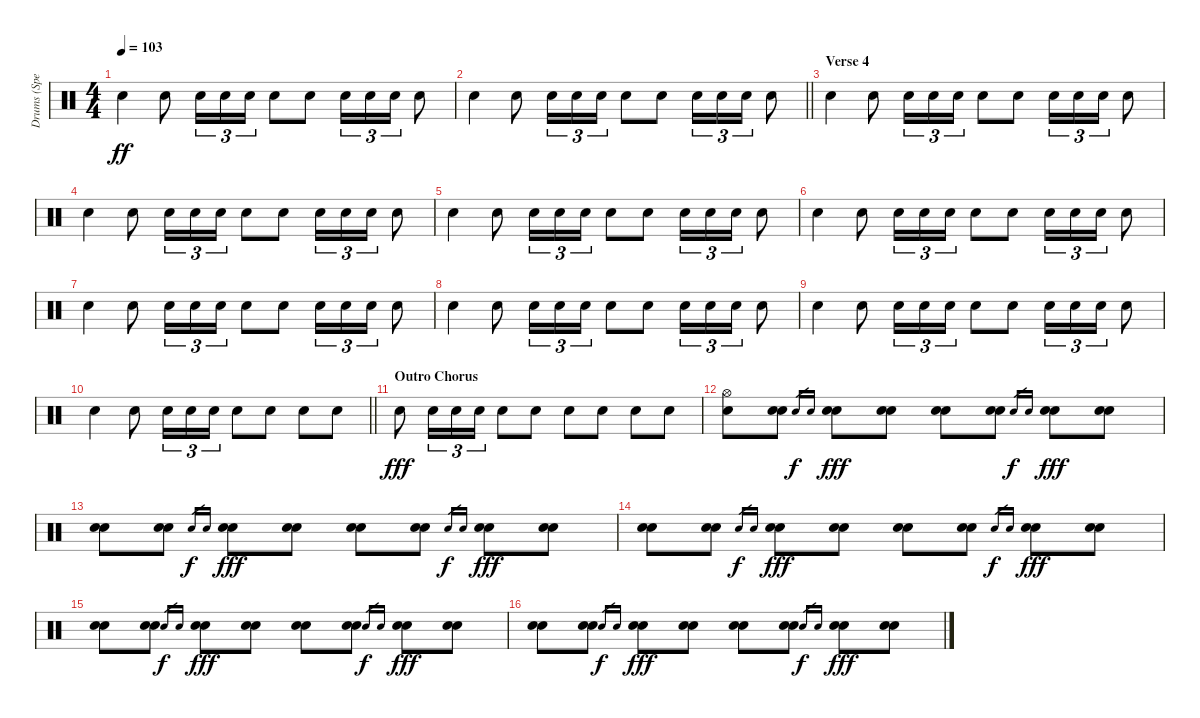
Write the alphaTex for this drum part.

\track ("Drums (Spencer Dryden)" "Drums (Spe") {instrument percussion}
\staff {score}
\articulation defaults
\ts (4 4)
\tempo 103
\clef neutral
\ks c "Snare (hit) 2".4{dy ff} "Snare (hit) 2".8 "Snare (hit) 2".16{tu (3 2)} "Snare (hit) 2".16{tu (3 2)} "Snare (hit) 2".16{tu (3 2)} "Snare (hit) 2".8 "Snare (hit) 2".8 "Snare (hit) 2".16{tu (3 2)} "Snare (hit) 2".16{tu (3 2)} "Snare (hit) 2".16{tu (3 2)} "Snare (hit) 2".8
|
\barLineRight lightlight "Snare (hit) 2".4 "Snare (hit) 2".8 "Snare (hit) 2".16{tu (3 2)} "Snare (hit) 2".16{tu (3 2)} "Snare (hit) 2".16{tu (3 2)} "Snare (hit) 2".8 "Snare (hit) 2".8 "Snare (hit) 2".16{tu (3 2)} "Snare (hit) 2".16{tu (3 2)} "Snare (hit) 2".16{tu (3 2)} "Snare (hit) 2".8
|
\section ("" "Verse 4")
"Snare (hit) 2".4 "Snare (hit) 2".8 "Snare (hit) 2".16{tu (3 2)} "Snare (hit) 2".16{tu (3 2)} "Snare (hit) 2".16{tu (3 2)} "Snare (hit) 2".8 "Snare (hit) 2".8 "Snare (hit) 2".16{tu (3 2)} "Snare (hit) 2".16{tu (3 2)} "Snare (hit) 2".16{tu (3 2)} "Snare (hit) 2".8 |
"Snare (hit) 2".4 "Snare (hit) 2".8 "Snare (hit) 2".16{tu (3 2)} "Snare (hit) 2".16{tu (3 2)} "Snare (hit) 2".16{tu (3 2)} "Snare (hit) 2".8 "Snare (hit) 2".8 "Snare (hit) 2".16{tu (3 2)} "Snare (hit) 2".16{tu (3 2)} "Snare (hit) 2".16{tu (3 2)} "Snare (hit) 2".8 |
"Snare (hit) 2".4 "Snare (hit) 2".8 "Snare (hit) 2".16{tu (3 2)} "Snare (hit) 2".16{tu (3 2)} "Snare (hit) 2".16{tu (3 2)} "Snare (hit) 2".8 "Snare (hit) 2".8 "Snare (hit) 2".16{tu (3 2)} "Snare (hit) 2".16{tu (3 2)} "Snare (hit) 2".16{tu (3 2)} "Snare (hit) 2".8 |
"Snare (hit) 2".4 "Snare (hit) 2".8 "Snare (hit) 2".16{tu (3 2)} "Snare (hit) 2".16{tu (3 2)} "Snare (hit) 2".16{tu (3 2)} "Snare (hit) 2".8 "Snare (hit) 2".8 "Snare (hit) 2".16{tu (3 2)} "Snare (hit) 2".16{tu (3 2)} "Snare (hit) 2".16{tu (3 2)} "Snare (hit) 2".8 |
"Snare (hit) 2".4 "Snare (hit) 2".8 "Snare (hit) 2".16{tu (3 2)} "Snare (hit) 2".16{tu (3 2)} "Snare (hit) 2".16{tu (3 2)} "Snare (hit) 2".8 "Snare (hit) 2".8 "Snare (hit) 2".16{tu (3 2)} "Snare (hit) 2".16{tu (3 2)} "Snare (hit) 2".16{tu (3 2)} "Snare (hit) 2".8 |
"Snare (hit) 2".4 "Snare (hit) 2".8 "Snare (hit) 2".16{tu (3 2)} "Snare (hit) 2".16{tu (3 2)} "Snare (hit) 2".16{tu (3 2)} "Snare (hit) 2".8 "Snare (hit) 2".8 "Snare (hit) 2".16{tu (3 2)} "Snare (hit) 2".16{tu (3 2)} "Snare (hit) 2".16{tu (3 2)} "Snare (hit) 2".8 |
"Snare (hit) 2".4 "Snare (hit) 2".8 "Snare (hit) 2".16{tu (3 2)} "Snare (hit) 2".16{tu (3 2)} "Snare (hit) 2".16{tu (3 2)} "Snare (hit) 2".8 "Snare (hit) 2".8 "Snare (hit) 2".16{tu (3 2)} "Snare (hit) 2".16{tu (3 2)} "Snare (hit) 2".16{tu (3 2)} "Snare (hit) 2".8 |
\barLineRight lightlight "Snare (hit) 2".4 "Snare (hit) 2".8 "Snare (hit) 2".16{tu (3 2)} "Snare (hit) 2".16{tu (3 2)} "Snare (hit) 2".16{tu (3 2)} "Snare (hit) 2".8 "Snare (hit) 2".8 "Snare (hit) 2".8 "Snare (hit) 2".8
|
\section ("" "Outro Chorus")
"Snare (hit) 2".8{dy fff} "Snare (hit) 2".16{tu (3 2)} "Snare (hit) 2".16{tu (3 2)} "Snare (hit) 2".16{tu (3 2)} "Snare (hit) 2".8 "Snare (hit) 2".8 "Snare (hit) 2".8 "Snare (hit) 2".8 "Snare (hit) 2".8 "Snare (hit) 2".8 |
("Hi-Hat (open)" "Snare (hit) 2").8 ("Snare (hit) 2" "Snare (hit) 2").8 "Snare (hit) 2".16{gr dy f} "Snare (hit) 2".16{gr} ("Snare (hit) 2" "Snare (hit) 2").8{dy fff} ("Snare (hit) 2" "Snare (hit) 2").8 ("Snare (hit) 2" "Snare (hit) 2").8 ("Snare (hit) 2" "Snare (hit) 2").8 "Snare (hit) 2".16{gr dy f} "Snare (hit) 2".16{gr} ("Snare (hit) 2" "Snare (hit) 2").8{dy fff} ("Snare (hit) 2" "Snare (hit) 2").8 |
("Snare (hit) 2" "Snare (hit) 2").8 ("Snare (hit) 2" "Snare (hit) 2").8 "Snare (hit) 2".16{gr dy f} "Snare (hit) 2".16{gr} ("Snare (hit) 2" "Snare (hit) 2").8{dy fff} ("Snare (hit) 2" "Snare (hit) 2").8 ("Snare (hit) 2" "Snare (hit) 2").8 ("Snare (hit) 2" "Snare (hit) 2").8 "Snare (hit) 2".16{gr dy f} "Snare (hit) 2".16{gr} ("Snare (hit) 2" "Snare (hit) 2").8{dy fff} ("Snare (hit) 2" "Snare (hit) 2").8 |
("Snare (hit) 2" "Snare (hit) 2").8 ("Snare (hit) 2" "Snare (hit) 2").8 "Snare (hit) 2".16{gr dy f} "Snare (hit) 2".16{gr} ("Snare (hit) 2" "Snare (hit) 2").8{dy fff} ("Snare (hit) 2" "Snare (hit) 2").8 ("Snare (hit) 2" "Snare (hit) 2").8 ("Snare (hit) 2" "Snare (hit) 2").8 "Snare (hit) 2".16{gr dy f} "Snare (hit) 2".16{gr} ("Snare (hit) 2" "Snare (hit) 2").8{dy fff} ("Snare (hit) 2" "Snare (hit) 2").8 |
("Snare (hit) 2" "Snare (hit) 2").8 ("Snare (hit) 2" "Snare (hit) 2").8 "Snare (hit) 2".16{gr dy f} "Snare (hit) 2".16{gr} ("Snare (hit) 2" "Snare (hit) 2").8{dy fff} ("Snare (hit) 2" "Snare (hit) 2").8 ("Snare (hit) 2" "Snare (hit) 2").8 ("Snare (hit) 2" "Snare (hit) 2").8 "Snare (hit) 2".16{gr dy f} "Snare (hit) 2".16{gr} ("Snare (hit) 2" "Snare (hit) 2").8{dy fff} ("Snare (hit) 2" "Snare (hit) 2").8 |
("Snare (hit) 2" "Snare (hit) 2").8 ("Snare (hit) 2" "Snare (hit) 2").8 "Snare (hit) 2".16{gr dy f} "Snare (hit) 2".16{gr} ("Snare (hit) 2" "Snare (hit) 2").8{dy fff} ("Snare (hit) 2" "Snare (hit) 2").8 ("Snare (hit) 2" "Snare (hit) 2").8 ("Snare (hit) 2" "Snare (hit) 2").8 "Snare (hit) 2".16{gr dy f} "Snare (hit) 2".16{gr} ("Snare (hit) 2" "Snare (hit) 2").8{dy fff} ("Snare (hit) 2" "Snare (hit) 2").8
